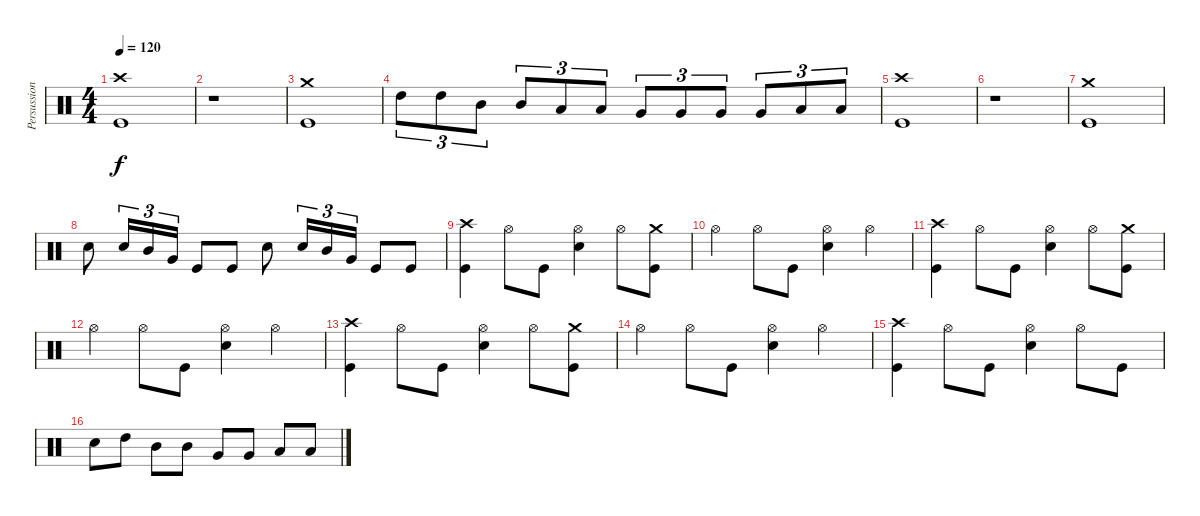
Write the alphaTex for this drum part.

\track ("Persussion" "Persussion") {instrument percussion}
\staff {score}
\articulation defaults
\ts (4 4)
\tempo 120
\clef neutral
\ks c
("Crash high (hit)" "Kick (hit)").1{dy f} |
r.1 |
("Crash medium (hit)" "Kick (hit)").1 |
"High Tom (hit)".8{tu (3 2)} "High Tom (hit)".8{tu (3 2)} "Mid Tom (hit)".8{tu (3 2)} "Mid Tom (hit)".8{tu (3 2)} "Low Tom (hit)".8{tu (3 2)} "Low Tom (hit)".8{tu (3 2)} "Very Low Tom (hit)".8{tu (3 2)} "Very Low Tom (hit)".8{tu (3 2)} "Very Low Tom (hit)".8{tu (3 2)} "Very Low Tom (hit)".8{tu (3 2)} "Low Floor Tom (hit)".8{tu (3 2)} "Low Floor Tom (hit)".8{tu (3 2)} |
("Crash high (hit)" "Kick (hit)").1 |
r.1 |
("Crash medium (hit)" "Kick (hit)").1 |
"Snare (hit) 2".8 "Snare (hit) 2".16{tu (3 2)} "Mid Tom (hit)".16{tu (3 2)} "Very Low Tom (hit)".16{tu (3 2)} "Kick (hit)".8 "Kick (hit)".8 "Snare (hit) 2".8 "Snare (hit) 2".16{tu (3 2)} "Mid Tom (hit)".16{tu (3 2)} "Very Low Tom (hit)".16{tu (3 2)} "Kick (hit)".8 "Kick (hit)".8 |
("Crash high (hit)" "Kick (hit)").4 "Hi-Hat (open)".8 "Kick (hit)".8 ("Hi-Hat (open)" "Snare (hit) 2").4 "Hi-Hat (open)".8 ("Crash medium (hit)" "Kick (hit)").8 |
"Hi-Hat (open)".4 "Hi-Hat (open)".8 "Kick (hit)".8 ("Hi-Hat (open)" "Snare (hit) 2").4 "Hi-Hat (open)".4 |
("Crash high (hit)" "Kick (hit)").4 "Hi-Hat (open)".8 "Kick (hit)".8 ("Hi-Hat (open)" "Snare (hit) 2").4 "Hi-Hat (open)".8 ("Crash medium (hit)" "Kick (hit)").8 |
"Hi-Hat (open)".4 "Hi-Hat (open)".8 "Kick (hit)".8 ("Hi-Hat (open)" "Snare (hit) 2").4 "Hi-Hat (open)".4 |
("Crash high (hit)" "Kick (hit)").4 "Hi-Hat (open)".8 "Kick (hit)".8 ("Hi-Hat (open)" "Snare (hit) 2").4 "Hi-Hat (open)".8 ("Crash medium (hit)" "Kick (hit)").8 |
"Hi-Hat (open)".4 "Hi-Hat (open)".8 "Kick (hit)".8 ("Hi-Hat (open)" "Snare (hit) 2").4 "Hi-Hat (open)".4 |
("Crash high (hit)" "Kick (hit)").4 "Hi-Hat (open)".8 "Kick (hit)".8 ("Hi-Hat (open)" "Snare (hit) 2").4 "Hi-Hat (open)".8 "Kick (hit)".8 |
"Snare (hit) 2".8 "High Tom (hit)".8 "Mid Tom (hit)".8 "Mid Tom (hit)".8 "Very Low Tom (hit)".8 "Very Low Tom (hit)".8 "Low Floor Tom (hit)".8 "Low Floor Tom (hit)".8
